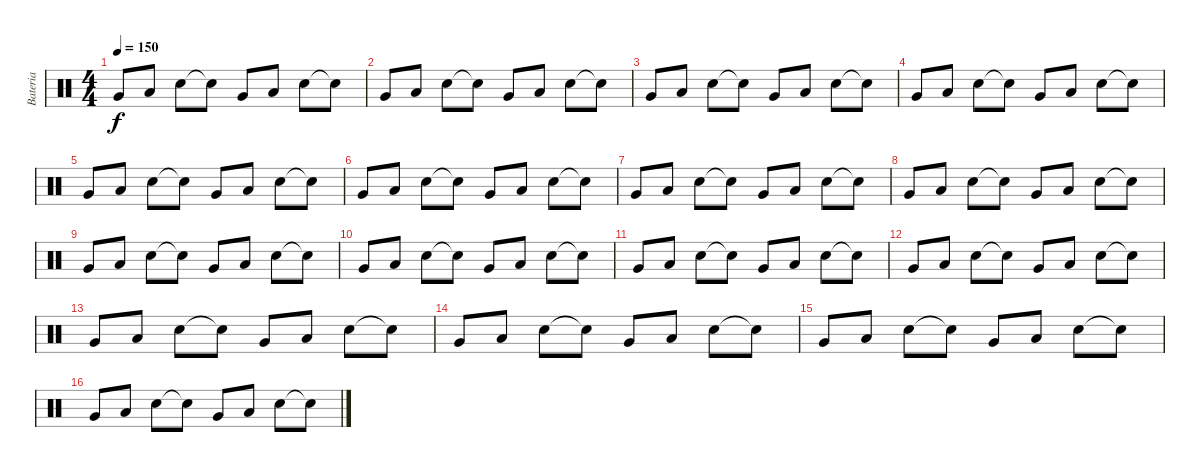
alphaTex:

\track ("Bateria" "Bateria") {instrument percussion}
\staff {score}
\articulation defaults
\ts (4 4)
\tempo 150
\clef neutral
\ks c "Very Low Tom (hit)".8{dy f} "Low Floor Tom (hit)".8 "Snare (hit) 2".8 "Snare (hit)"{t}.8 "Very Low Tom (hit)".8 "Low Floor Tom (hit)".8 "Snare (hit) 2".8 "Snare (hit)"{t}.8
|
"Very Low Tom (hit)".8 "Low Floor Tom (hit)".8 "Snare (hit) 2".8 "Snare (hit)"{t}.8 "Very Low Tom (hit)".8 "Low Floor Tom (hit)".8 "Snare (hit) 2".8 "Snare (hit)"{t}.8 |
"Very Low Tom (hit)".8 "Low Floor Tom (hit)".8 "Snare (hit) 2".8 "Snare (hit)"{t}.8 "Very Low Tom (hit)".8 "Low Floor Tom (hit)".8 "Snare (hit) 2".8 "Snare (hit)"{t}.8 |
"Very Low Tom (hit)".8 "Low Floor Tom (hit)".8 "Snare (hit) 2".8 "Snare (hit)"{t}.8 "Very Low Tom (hit)".8 "Low Floor Tom (hit)".8 "Snare (hit) 2".8 "Snare (hit)"{t}.8 |
"Very Low Tom (hit)".8 "Low Floor Tom (hit)".8 "Snare (hit) 2".8 "Snare (hit)"{t}.8 "Very Low Tom (hit)".8 "Low Floor Tom (hit)".8 "Snare (hit) 2".8 "Snare (hit)"{t}.8 |
"Very Low Tom (hit)".8 "Low Floor Tom (hit)".8 "Snare (hit) 2".8 "Snare (hit)"{t}.8 "Very Low Tom (hit)".8 "Low Floor Tom (hit)".8 "Snare (hit) 2".8 "Snare (hit)"{t}.8 |
"Very Low Tom (hit)".8 "Low Floor Tom (hit)".8 "Snare (hit) 2".8 "Snare (hit)"{t}.8 "Very Low Tom (hit)".8 "Low Floor Tom (hit)".8 "Snare (hit) 2".8 "Snare (hit)"{t}.8 |
"Very Low Tom (hit)".8 "Low Floor Tom (hit)".8 "Snare (hit) 2".8 "Snare (hit)"{t}.8 "Very Low Tom (hit)".8 "Low Floor Tom (hit)".8 "Snare (hit) 2".8 "Snare (hit)"{t}.8 |
"Very Low Tom (hit)".8 "Low Floor Tom (hit)".8 "Snare (hit) 2".8 "Snare (hit)"{t}.8 "Very Low Tom (hit)".8 "Low Floor Tom (hit)".8 "Snare (hit) 2".8 "Snare (hit)"{t}.8 |
"Very Low Tom (hit)".8 "Low Floor Tom (hit)".8 "Snare (hit) 2".8 "Snare (hit)"{t}.8 "Very Low Tom (hit)".8 "Low Floor Tom (hit)".8 "Snare (hit) 2".8 "Snare (hit)"{t}.8 |
"Very Low Tom (hit)".8 "Low Floor Tom (hit)".8 "Snare (hit) 2".8 "Snare (hit)"{t}.8 "Very Low Tom (hit)".8 "Low Floor Tom (hit)".8 "Snare (hit) 2".8 "Snare (hit)"{t}.8 |
"Very Low Tom (hit)".8 "Low Floor Tom (hit)".8 "Snare (hit) 2".8 "Snare (hit)"{t}.8 "Very Low Tom (hit)".8 "Low Floor Tom (hit)".8 "Snare (hit) 2".8 "Snare (hit)"{t}.8 |
"Very Low Tom (hit)".8 "Low Floor Tom (hit)".8 "Snare (hit) 2".8 "Snare (hit)"{t}.8 "Very Low Tom (hit)".8 "Low Floor Tom (hit)".8 "Snare (hit) 2".8 "Snare (hit)"{t}.8 |
"Very Low Tom (hit)".8 "Low Floor Tom (hit)".8 "Snare (hit) 2".8 "Snare (hit)"{t}.8 "Very Low Tom (hit)".8 "Low Floor Tom (hit)".8 "Snare (hit) 2".8 "Snare (hit)"{t}.8 |
"Very Low Tom (hit)".8 "Low Floor Tom (hit)".8 "Snare (hit) 2".8 "Snare (hit)"{t}.8 "Very Low Tom (hit)".8 "Low Floor Tom (hit)".8 "Snare (hit) 2".8 "Snare (hit)"{t}.8 |
"Very Low Tom (hit)".8 "Low Floor Tom (hit)".8 "Snare (hit) 2".8 "Snare (hit)"{t}.8 "Very Low Tom (hit)".8 "Low Floor Tom (hit)".8 "Snare (hit) 2".8 "Snare (hit)"{t}.8
